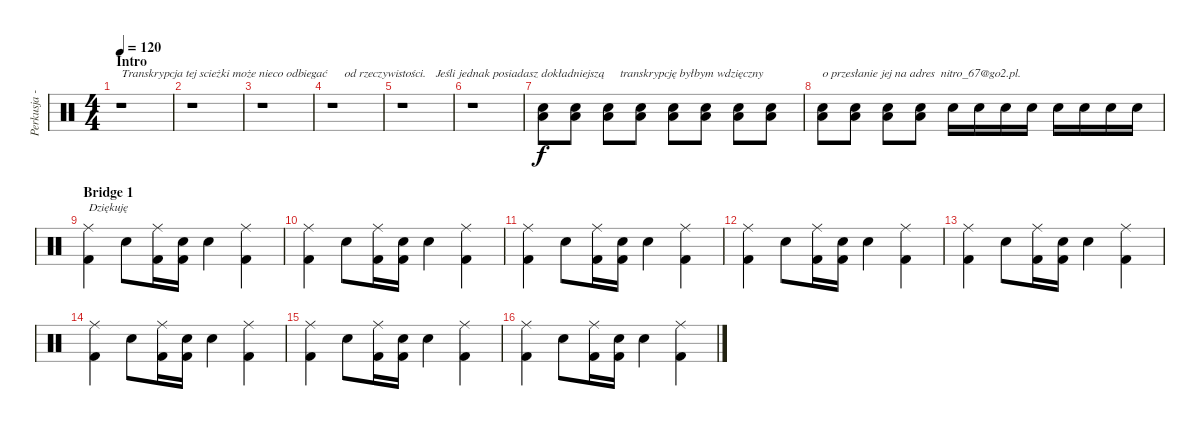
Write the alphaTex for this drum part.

\track ("Perkusja - Mielony" "Perkusja -") {instrument percussion}
\staff {score}
\articulation defaults
\ts (4 4)
\section ("" "Intro")
\tempo 120
\clef neutral
\ks c
r.1{txt "Transkrypcja tej scieżki może nieco odbiegać" dy f} |
r.1 |
r.1 |
r.1{txt "    od rzeczywistości."} |
r.1{txt "           Jeśli jednak posiadasz dokładniejszą "} |
r.1 |
("Snare (hit) 2" "Low Tom (hit)").8 ("Snare (hit) 2" "Low Tom (hit)").8 ("Snare (hit) 2" "Low Tom (hit)").8{txt "    transkrypcję byłbym wdzięczny "} ("Snare (hit) 2" "Low Tom (hit)").8 ("Snare (hit) 2" "Low Tom (hit)").8 ("Snare (hit) 2" "Low Tom (hit)").8 ("Snare (hit) 2" "Low Tom (hit)").8 ("Snare (hit) 2" "Low Tom (hit)").8 |
("Snare (hit) 2" "Low Tom (hit)").8{txt "o przesłanie jej na adres  nitro_67@go2.pl. "} ("Snare (hit) 2" "Low Tom (hit)").8 ("Snare (hit) 2" "Low Tom (hit)").8 ("Snare (hit) 2" "Low Tom (hit)").8 "Snare (hit) 2".16 "Snare (hit) 2".16 "Snare (hit) 2".16 "Snare (hit) 2".16 "Snare (hit) 2".16 "Snare (hit) 2".16 "Snare (hit) 2".16 "Snare (hit) 2".16 |
\section ("" "Bridge 1")
("Ride (middle)" "Kick (hit) 2").4{txt "Dziękuję"} "Snare (hit) 2".8 ("Ride (middle)" "Kick (hit) 2").16 ("Snare (hit) 2" "Kick (hit) 2").16 "Snare (hit) 2".4 ("Ride (middle)" "Kick (hit) 2").4 |
("Ride (middle)" "Kick (hit) 2").4 "Snare (hit) 2".8 ("Ride (middle)" "Kick (hit) 2").16 ("Snare (hit) 2" "Kick (hit) 2").16 "Snare (hit) 2".4 ("Ride (middle)" "Kick (hit) 2").4 |
("Ride (middle)" "Kick (hit) 2").4 "Snare (hit) 2".8 ("Ride (middle)" "Kick (hit) 2").16 ("Snare (hit) 2" "Kick (hit) 2").16 "Snare (hit) 2".4 ("Ride (middle)" "Kick (hit) 2").4 |
("Ride (middle)" "Kick (hit) 2").4 "Snare (hit) 2".8 ("Ride (middle)" "Kick (hit) 2").16 ("Snare (hit) 2" "Kick (hit) 2").16 "Snare (hit) 2".4 ("Ride (middle)" "Kick (hit) 2").4 |
("Ride (middle)" "Kick (hit) 2").4 "Snare (hit) 2".8 ("Ride (middle)" "Kick (hit) 2").16 ("Snare (hit) 2" "Kick (hit) 2").16 "Snare (hit) 2".4 ("Ride (middle)" "Kick (hit) 2").4 |
("Ride (middle)" "Kick (hit) 2").4 "Snare (hit) 2".8 ("Ride (middle)" "Kick (hit) 2").16 ("Snare (hit) 2" "Kick (hit) 2").16 "Snare (hit) 2".4 ("Ride (middle)" "Kick (hit) 2").4 |
("Ride (middle)" "Kick (hit) 2").4 "Snare (hit) 2".8 ("Ride (middle)" "Kick (hit) 2").16 ("Snare (hit) 2" "Kick (hit) 2").16 "Snare (hit) 2".4 ("Ride (middle)" "Kick (hit) 2").4 |
("Ride (middle)" "Kick (hit) 2").4 "Snare (hit) 2".8 ("Ride (middle)" "Kick (hit) 2").16 ("Snare (hit) 2" "Kick (hit) 2").16 "Snare (hit) 2".4 ("Ride (middle)" "Kick (hit) 2").4
